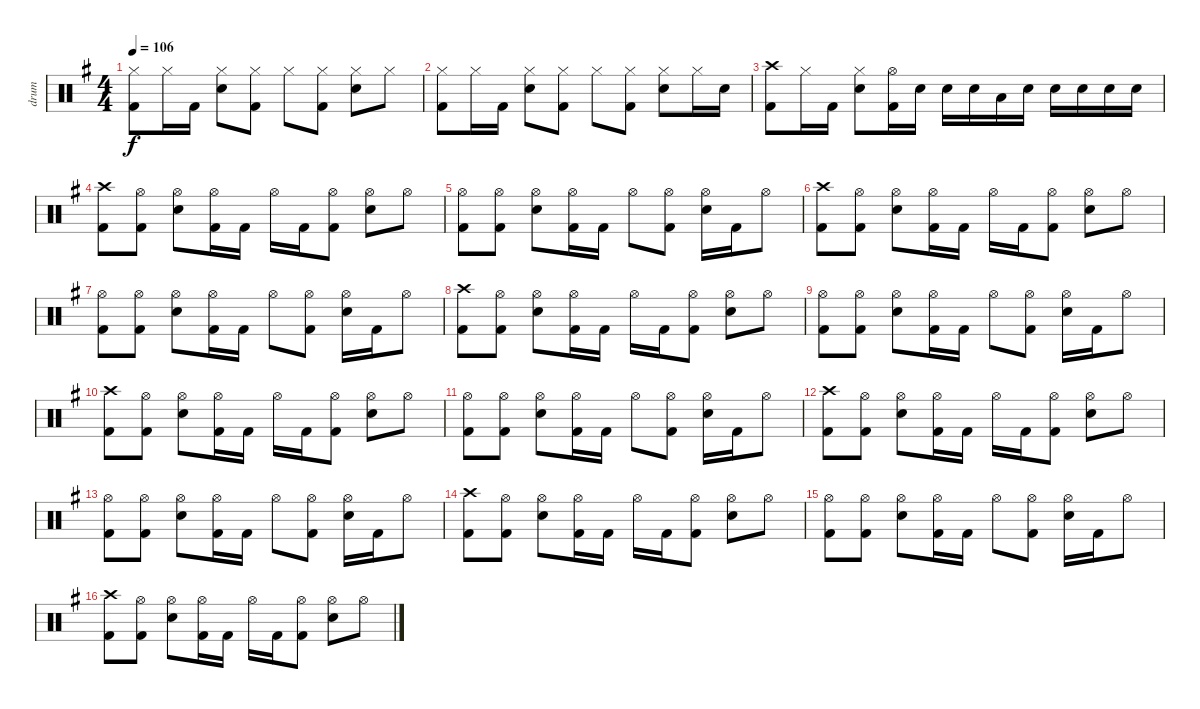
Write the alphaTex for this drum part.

\track ("drum" "drum") {instrument percussion}
\staff {score}
\articulation defaults
\ts (4 4)
\tempo 106
\clef neutral
\ks eminor
("Hi-Hat (closed)" "Kick (hit) 2").8{dy f} "Hi-Hat (closed)".16 "Kick (hit) 2".16 ("Hi-Hat (closed)" "Electric Snare (hit)").8 ("Hi-Hat (closed)" "Kick (hit) 2").8 "Hi-Hat (closed)".8 ("Hi-Hat (closed)" "Kick (hit) 2").8 ("Hi-Hat (closed)" "Electric Snare (hit)").8 "Hi-Hat (closed)".8 |
("Hi-Hat (closed)" "Kick (hit) 2").8 "Hi-Hat (closed)".16 "Kick (hit) 2".16 ("Hi-Hat (closed)" "Electric Snare (hit)").8 ("Hi-Hat (closed)" "Kick (hit) 2").8 "Hi-Hat (closed)".8 ("Hi-Hat (closed)" "Kick (hit) 2").8 ("Hi-Hat (closed)" "Electric Snare (hit)").8 "Hi-Hat (closed)".16 "Electric Snare (hit)".16 |
("Crash high (hit)" "Kick (hit) 2").8 "Hi-Hat (closed)".16 "Kick (hit) 2".16 ("Hi-Hat (closed)" "Electric Snare (hit)").8 ("Hi-Hat (open)" "Kick (hit) 2").16 "Electric Snare (hit)".16 "Electric Snare (hit)".16 "Electric Snare (hit)".16 "Low Tom (hit)".16 "Electric Snare (hit)".16 "Electric Snare (hit)".16 "Electric Snare (hit)".16 "Electric Snare (hit)".16 "Electric Snare (hit)".16 |
("Crash high (hit)" "Kick (hit) 2").8 ("Hi-Hat (open)" "Kick (hit) 2").8 ("Hi-Hat (open)" "Electric Snare (hit)").8 ("Hi-Hat (open)" "Kick (hit) 2").16 "Kick (hit) 2".16 "Hi-Hat (open)".16 "Kick (hit) 2".16 ("Hi-Hat (open)" "Kick (hit) 2").8 ("Hi-Hat (open)" "Electric Snare (hit)").8 "Hi-Hat (open)".8 |
("Hi-Hat (open)" "Kick (hit) 2").8 ("Hi-Hat (open)" "Kick (hit) 2").8 ("Hi-Hat (open)" "Electric Snare (hit)").8 ("Hi-Hat (open)" "Kick (hit) 2").16 "Kick (hit) 2".16 "Hi-Hat (open)".8 ("Hi-Hat (open)" "Kick (hit) 2").8 ("Hi-Hat (open)" "Electric Snare (hit)").16 "Kick (hit) 2".16 "Hi-Hat (open)".8 |
("Crash high (hit)" "Kick (hit) 2").8 ("Hi-Hat (open)" "Kick (hit) 2").8 ("Hi-Hat (open)" "Electric Snare (hit)").8 ("Hi-Hat (open)" "Kick (hit) 2").16 "Kick (hit) 2".16 "Hi-Hat (open)".16 "Kick (hit) 2".16 ("Hi-Hat (open)" "Kick (hit) 2").8 ("Hi-Hat (open)" "Electric Snare (hit)").8 "Hi-Hat (open)".8 |
("Hi-Hat (open)" "Kick (hit) 2").8 ("Hi-Hat (open)" "Kick (hit) 2").8 ("Hi-Hat (open)" "Electric Snare (hit)").8 ("Hi-Hat (open)" "Kick (hit) 2").16 "Kick (hit) 2".16 "Hi-Hat (open)".8 ("Hi-Hat (open)" "Kick (hit) 2").8 ("Hi-Hat (open)" "Electric Snare (hit)").16 "Kick (hit) 2".16 "Hi-Hat (open)".8 |
("Crash high (hit)" "Kick (hit) 2").8 ("Hi-Hat (open)" "Kick (hit) 2").8 ("Hi-Hat (open)" "Electric Snare (hit)").8 ("Hi-Hat (open)" "Kick (hit) 2").16 "Kick (hit) 2".16 "Hi-Hat (open)".16 "Kick (hit) 2".16 ("Hi-Hat (open)" "Kick (hit) 2").8 ("Hi-Hat (open)" "Electric Snare (hit)").8 "Hi-Hat (open)".8 |
("Hi-Hat (open)" "Kick (hit) 2").8 ("Hi-Hat (open)" "Kick (hit) 2").8 ("Hi-Hat (open)" "Electric Snare (hit)").8 ("Hi-Hat (open)" "Kick (hit) 2").16 "Kick (hit) 2".16 "Hi-Hat (open)".8 ("Hi-Hat (open)" "Kick (hit) 2").8 ("Hi-Hat (open)" "Electric Snare (hit)").16 "Kick (hit) 2".16 "Hi-Hat (open)".8 |
("Crash high (hit)" "Kick (hit) 2").8 ("Hi-Hat (open)" "Kick (hit) 2").8 ("Hi-Hat (open)" "Electric Snare (hit)").8 ("Hi-Hat (open)" "Kick (hit) 2").16 "Kick (hit) 2".16 "Hi-Hat (open)".16 "Kick (hit) 2".16 ("Hi-Hat (open)" "Kick (hit) 2").8 ("Hi-Hat (open)" "Electric Snare (hit)").8 "Hi-Hat (open)".8 |
("Hi-Hat (open)" "Kick (hit) 2").8 ("Hi-Hat (open)" "Kick (hit) 2").8 ("Hi-Hat (open)" "Electric Snare (hit)").8 ("Hi-Hat (open)" "Kick (hit) 2").16 "Kick (hit) 2".16 "Hi-Hat (open)".8 ("Hi-Hat (open)" "Kick (hit) 2").8 ("Hi-Hat (open)" "Electric Snare (hit)").16 "Kick (hit) 2".16 "Hi-Hat (open)".8 |
("Crash high (hit)" "Kick (hit) 2").8 ("Hi-Hat (open)" "Kick (hit) 2").8 ("Hi-Hat (open)" "Electric Snare (hit)").8 ("Hi-Hat (open)" "Kick (hit) 2").16 "Kick (hit) 2".16 "Hi-Hat (open)".16 "Kick (hit) 2".16 ("Hi-Hat (open)" "Kick (hit) 2").8 ("Hi-Hat (open)" "Electric Snare (hit)").8 "Hi-Hat (open)".8 |
("Hi-Hat (open)" "Kick (hit) 2").8 ("Hi-Hat (open)" "Kick (hit) 2").8 ("Hi-Hat (open)" "Electric Snare (hit)").8 ("Hi-Hat (open)" "Kick (hit) 2").16 "Kick (hit) 2".16 "Hi-Hat (open)".8 ("Hi-Hat (open)" "Kick (hit) 2").8 ("Hi-Hat (open)" "Electric Snare (hit)").16 "Kick (hit) 2".16 "Hi-Hat (open)".8 |
("Crash high (hit)" "Kick (hit) 2").8 ("Hi-Hat (open)" "Kick (hit) 2").8 ("Hi-Hat (open)" "Electric Snare (hit)").8 ("Hi-Hat (open)" "Kick (hit) 2").16 "Kick (hit) 2".16 "Hi-Hat (open)".16 "Kick (hit) 2".16 ("Hi-Hat (open)" "Kick (hit) 2").8 ("Hi-Hat (open)" "Electric Snare (hit)").8 "Hi-Hat (open)".8 |
("Hi-Hat (open)" "Kick (hit) 2").8 ("Hi-Hat (open)" "Kick (hit) 2").8 ("Hi-Hat (open)" "Electric Snare (hit)").8 ("Hi-Hat (open)" "Kick (hit) 2").16 "Kick (hit) 2".16 "Hi-Hat (open)".8 ("Hi-Hat (open)" "Kick (hit) 2").8 ("Hi-Hat (open)" "Electric Snare (hit)").16 "Kick (hit) 2".16 "Hi-Hat (open)".8 |
("Crash high (hit)" "Kick (hit) 2").8 ("Hi-Hat (open)" "Kick (hit) 2").8 ("Hi-Hat (open)" "Electric Snare (hit)").8 ("Hi-Hat (open)" "Kick (hit) 2").16 "Kick (hit) 2".16 "Hi-Hat (open)".16 "Kick (hit) 2".16 ("Hi-Hat (open)" "Kick (hit) 2").8 ("Hi-Hat (open)" "Electric Snare (hit)").8 "Hi-Hat (open)".8
